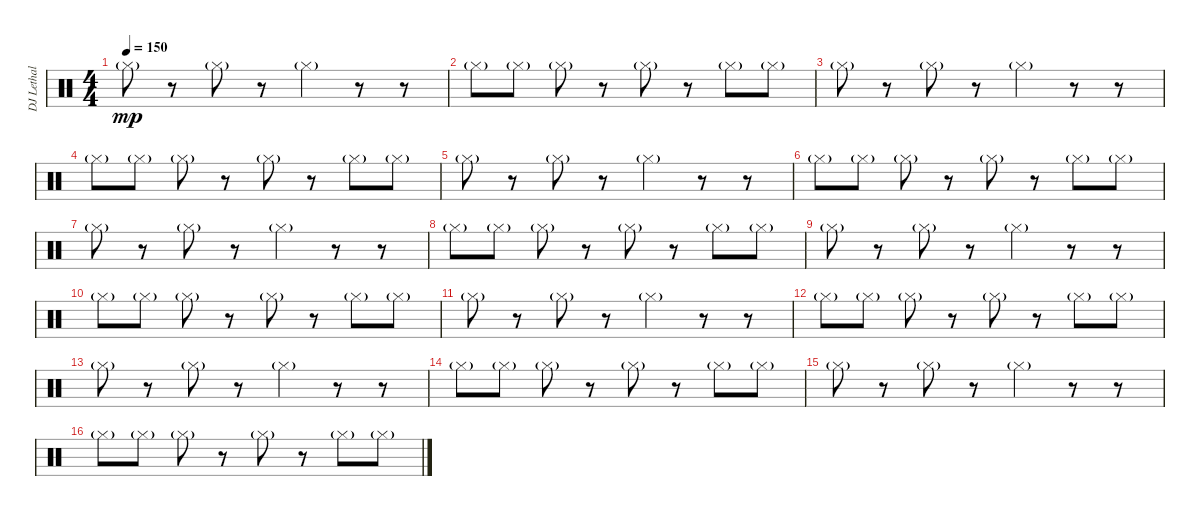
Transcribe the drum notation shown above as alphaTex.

\track ("DJ Lethal (Beats 2)" "DJ Lethal ") {instrument percussion}
\staff {score}
\articulation defaults
\ts (4 4)
\tempo 150
\clef neutral
\ks c "Hi-Hat (closed)"{g}.8{dy mp}
r.8 "Hi-Hat (closed)"{g}.8 r.8 "Hi-Hat (closed)"{g}.4 r.8 r.8 |
"Hi-Hat (closed)"{g}.8 "Hi-Hat (closed)"{g}.8 "Hi-Hat (closed)"{g}.8 r.8 "Hi-Hat (closed)"{g}.8 r.8 "Hi-Hat (closed)"{g}.8 "Hi-Hat (closed)"{g}.8 |
"Hi-Hat (closed)"{g}.8 r.8 "Hi-Hat (closed)"{g}.8 r.8 "Hi-Hat (closed)"{g}.4 r.8 r.8 |
"Hi-Hat (closed)"{g}.8 "Hi-Hat (closed)"{g}.8 "Hi-Hat (closed)"{g}.8 r.8 "Hi-Hat (closed)"{g}.8 r.8 "Hi-Hat (closed)"{g}.8 "Hi-Hat (closed)"{g}.8 |
"Hi-Hat (closed)"{g}.8 r.8 "Hi-Hat (closed)"{g}.8 r.8 "Hi-Hat (closed)"{g}.4 r.8 r.8 |
"Hi-Hat (closed)"{g}.8 "Hi-Hat (closed)"{g}.8 "Hi-Hat (closed)"{g}.8 r.8 "Hi-Hat (closed)"{g}.8 r.8 "Hi-Hat (closed)"{g}.8 "Hi-Hat (closed)"{g}.8 |
"Hi-Hat (closed)"{g}.8 r.8 "Hi-Hat (closed)"{g}.8 r.8 "Hi-Hat (closed)"{g}.4 r.8 r.8 |
"Hi-Hat (closed)"{g}.8 "Hi-Hat (closed)"{g}.8 "Hi-Hat (closed)"{g}.8 r.8 "Hi-Hat (closed)"{g}.8 r.8 "Hi-Hat (closed)"{g}.8 "Hi-Hat (closed)"{g}.8 |
"Hi-Hat (closed)"{g}.8 r.8 "Hi-Hat (closed)"{g}.8 r.8 "Hi-Hat (closed)"{g}.4 r.8 r.8 |
"Hi-Hat (closed)"{g}.8 "Hi-Hat (closed)"{g}.8 "Hi-Hat (closed)"{g}.8 r.8 "Hi-Hat (closed)"{g}.8 r.8 "Hi-Hat (closed)"{g}.8 "Hi-Hat (closed)"{g}.8 |
"Hi-Hat (closed)"{g}.8 r.8 "Hi-Hat (closed)"{g}.8 r.8 "Hi-Hat (closed)"{g}.4 r.8 r.8 |
"Hi-Hat (closed)"{g}.8 "Hi-Hat (closed)"{g}.8 "Hi-Hat (closed)"{g}.8 r.8 "Hi-Hat (closed)"{g}.8 r.8 "Hi-Hat (closed)"{g}.8 "Hi-Hat (closed)"{g}.8 |
"Hi-Hat (closed)"{g}.8 r.8 "Hi-Hat (closed)"{g}.8 r.8 "Hi-Hat (closed)"{g}.4 r.8 r.8 |
"Hi-Hat (closed)"{g}.8 "Hi-Hat (closed)"{g}.8 "Hi-Hat (closed)"{g}.8 r.8 "Hi-Hat (closed)"{g}.8 r.8 "Hi-Hat (closed)"{g}.8 "Hi-Hat (closed)"{g}.8 |
"Hi-Hat (closed)"{g}.8 r.8 "Hi-Hat (closed)"{g}.8 r.8 "Hi-Hat (closed)"{g}.4 r.8 r.8 |
"Hi-Hat (closed)"{g}.8 "Hi-Hat (closed)"{g}.8 "Hi-Hat (closed)"{g}.8 r.8 "Hi-Hat (closed)"{g}.8 r.8 "Hi-Hat (closed)"{g}.8 "Hi-Hat (closed)"{g}.8
